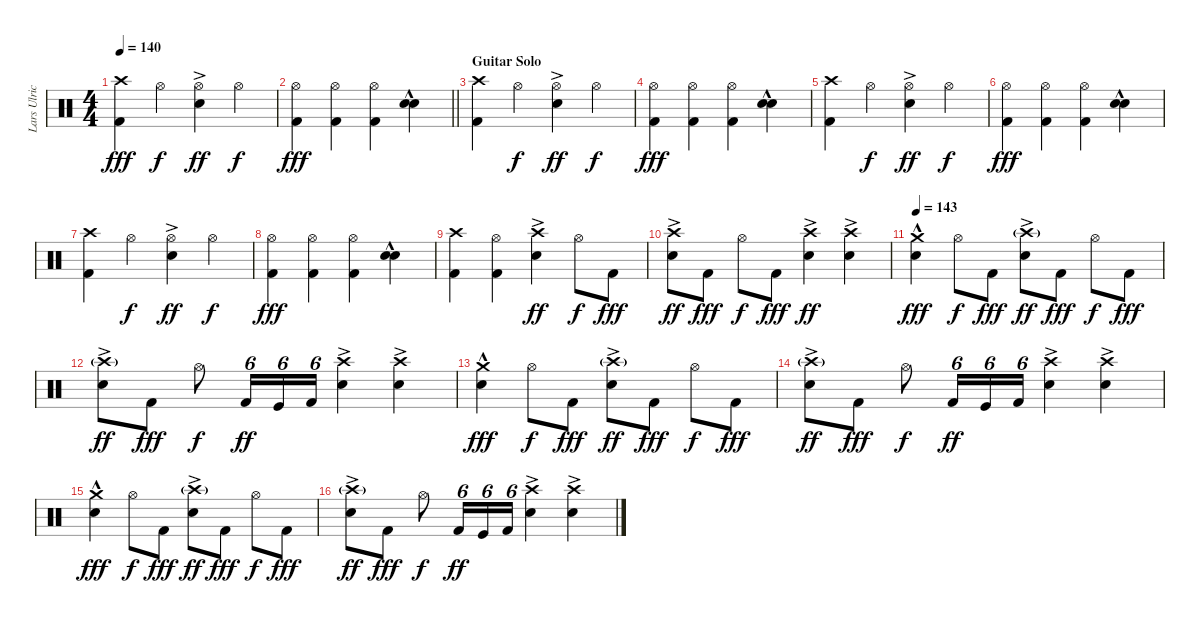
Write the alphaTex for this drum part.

\track ("Lars Ulrich (Drums)" "Lars Ulric") {instrument percussion}
\staff {score}
\articulation defaults
\ts (4 4)
\tempo 140
\clef neutral
\ks c
("Crash high (hit)" "Kick (hit) 2").4{dy fff} "Hi-Hat (open)".4{dy f} ("Hi-Hat (open)"{ac} "Electric Snare (hit)"{ac}).4{dy ff} "Hi-Hat (open)".4{dy f} |
\barLineRight lightlight
("Hi-Hat (open)" "Kick (hit) 2").4{dy fff} ("Hi-Hat (open)" "Kick (hit) 2").4 ("Hi-Hat (open)" "Kick (hit) 2").4 ("Electric Snare (hit)"{hac} "Electric Snare (hit)"{hac}).4{bd 120} |
\section ("" "Guitar Solo")
("Crash high (hit)" "Kick (hit) 2").4 "Hi-Hat (open)".4{dy f} ("Hi-Hat (open)"{ac} "Electric Snare (hit)"{ac}).4{dy ff} "Hi-Hat (open)".4{dy f} |
("Hi-Hat (open)" "Kick (hit) 2").4{dy fff} ("Hi-Hat (open)" "Kick (hit) 2").4 ("Hi-Hat (open)" "Kick (hit) 2").4 ("Electric Snare (hit)"{hac} "Electric Snare (hit)"{hac}).4{bd 120} |
("Crash high (hit)" "Kick (hit) 2").4 "Hi-Hat (open)".4{dy f} ("Hi-Hat (open)"{ac} "Electric Snare (hit)"{ac}).4{dy ff} "Hi-Hat (open)".4{dy f} |
("Hi-Hat (open)" "Kick (hit) 2").4{dy fff} ("Hi-Hat (open)" "Kick (hit) 2").4 ("Hi-Hat (open)" "Kick (hit) 2").4 ("Electric Snare (hit)"{hac} "Electric Snare (hit)"{hac}).4{bd 120} |
("Crash high (hit)" "Kick (hit) 2").4 "Hi-Hat (open)".4{dy f} ("Hi-Hat (open)"{ac} "Electric Snare (hit)"{ac}).4{dy ff} "Hi-Hat (open)".4{dy f} |
("Hi-Hat (open)" "Kick (hit) 2").4{dy fff} ("Hi-Hat (open)" "Kick (hit) 2").4 ("Hi-Hat (open)" "Kick (hit) 2").4 ("Electric Snare (hit)"{hac} "Electric Snare (hit)"{hac}).4{bd 120} |
("Crash high (hit)" "Kick (hit) 2").4 ("Hi-Hat (open)" "Kick (hit) 2").4 ("Crash high (hit)" "Electric Snare (hit)"{ac}).4{dy ff} "Hi-Hat (open)".8{dy f} "Kick (hit) 2".8{dy fff} |
("Crash high (hit)" "Electric Snare (hit)"{ac}).8{dy ff} "Kick (hit) 2".8{dy fff} "Hi-Hat (open)".8{dy f} "Kick (hit) 2".8{dy fff} ("Crash high (hit)" "Electric Snare (hit)"{ac}).4{dy ff} ("Crash high (hit)" "Electric Snare (hit)"{ac}).4 |
\tempo 143
("Crash medium (hit)" "Electric Snare (hit)"{hac}).4{dy fff} "Hi-Hat (open)".8{dy f} "Kick (hit) 2".8{dy fff} ("Crash high (hit)"{g} "Electric Snare (hit)"{ac}).8{dy ff} "Kick (hit) 2".8{dy fff} "Hi-Hat (open)".8{dy f} "Kick (hit) 2".8{dy fff} |
("Crash high (hit)"{g} "Electric Snare (hit)"{ac}).8{dy ff} "Kick (hit) 2".8{dy fff} "Hi-Hat (open)".8{dy f} "Kick (hit) 2".16{tu (6 4) dy ff} "Kick (hit)".16{tu (6 4)} "Kick (hit) 2".16{tu (6 4)} ("Crash high (hit)" "Electric Snare (hit)"{ac}).4 ("Crash high (hit)" "Electric Snare (hit)"{ac}).4 |
("Crash medium (hit)" "Electric Snare (hit)"{hac}).4{dy fff} "Hi-Hat (open)".8{dy f} "Kick (hit) 2".8{dy fff} ("Crash high (hit)"{g} "Electric Snare (hit)"{ac}).8{dy ff} "Kick (hit) 2".8{dy fff} "Hi-Hat (open)".8{dy f} "Kick (hit) 2".8{dy fff} |
("Crash high (hit)"{g} "Electric Snare (hit)"{ac}).8{dy ff} "Kick (hit) 2".8{dy fff} "Hi-Hat (open)".8{dy f} "Kick (hit) 2".16{tu (6 4) dy ff} "Kick (hit)".16{tu (6 4)} "Kick (hit) 2".16{tu (6 4)} ("Crash high (hit)" "Electric Snare (hit)"{ac}).4 ("Crash high (hit)" "Electric Snare (hit)"{ac}).4 |
("Crash medium (hit)" "Electric Snare (hit)"{hac}).4{dy fff} "Hi-Hat (open)".8{dy f} "Kick (hit) 2".8{dy fff} ("Crash high (hit)"{g} "Electric Snare (hit)"{ac}).8{dy ff} "Kick (hit) 2".8{dy fff} "Hi-Hat (open)".8{dy f} "Kick (hit) 2".8{dy fff} |
("Crash high (hit)"{g} "Electric Snare (hit)"{ac}).8{dy ff} "Kick (hit) 2".8{dy fff} "Hi-Hat (open)".8{dy f} "Kick (hit) 2".16{tu (6 4) dy ff} "Kick (hit)".16{tu (6 4)} "Kick (hit) 2".16{tu (6 4)} ("Crash high (hit)" "Electric Snare (hit)"{ac}).4 ("Crash high (hit)" "Electric Snare (hit)"{ac}).4
